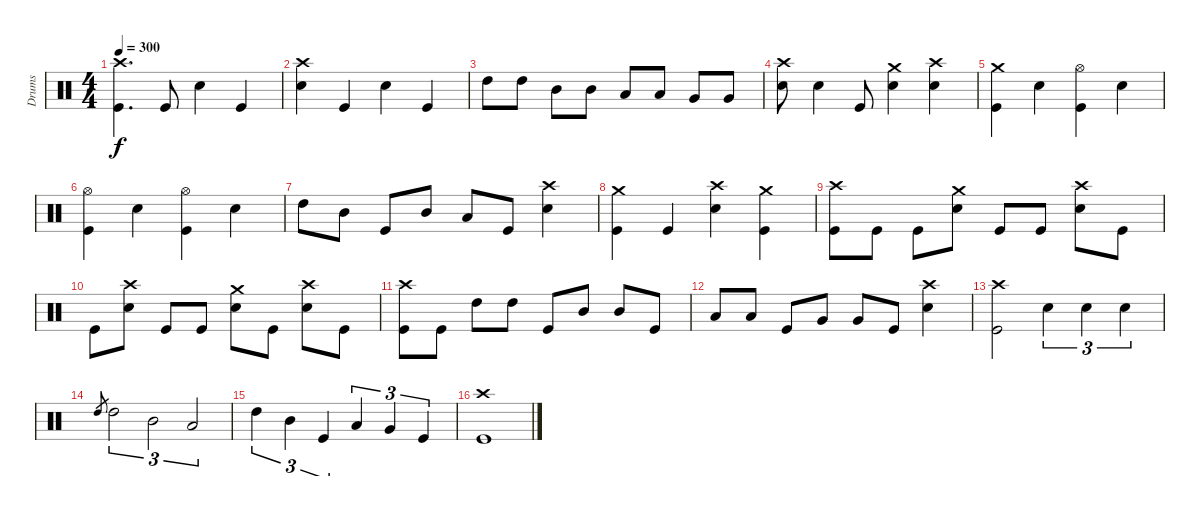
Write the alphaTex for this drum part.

\track ("Drums" "Drums") {instrument percussion}
\staff {score}
\articulation defaults
\ts (4 4)
\tempo 300
\clef neutral
\ks c
("Crash high (hit)" "Kick (hit)").4{d dy f} "Kick (hit)".8 "Electric Snare (hit)".4 "Kick (hit)".4 |
("Crash high (hit)" "Electric Snare (hit)").4 "Kick (hit)".4 "Electric Snare (hit)".4 "Kick (hit)".4 |
"High Tom (hit)".8 "High Tom (hit)".8 "Mid Tom (hit)".8 "Mid Tom (hit)".8 "Low Tom (hit)".8 "Low Tom (hit)".8 "Very Low Tom (hit)".8 "Very Low Tom (hit)".8 |
("Crash high (hit)" "Electric Snare (hit)").8 "Electric Snare (hit)".4 "Kick (hit)".8 ("Crash medium (hit)" "Electric Snare (hit)").4 ("Crash high (hit)" "Electric Snare (hit)").4 |
("Crash medium (hit)" "Kick (hit)").4 "Electric Snare (hit)".4 ("Hi-Hat (open)" "Kick (hit)").4 "Electric Snare (hit)".4 |
("Hi-Hat (open)" "Kick (hit)").4 "Electric Snare (hit)".4 ("Hi-Hat (open)" "Kick (hit)").4 "Electric Snare (hit)".4 |
"High Tom (hit)".8 "Mid Tom (hit)".8 "Kick (hit)".8 "Mid Tom (hit)".8 "Low Tom (hit)".8 "Kick (hit)".8 ("Crash high (hit)" "Electric Snare (hit)").4 |
("Crash medium (hit)" "Kick (hit)").4 "Kick (hit)".4 ("Crash high (hit)" "Electric Snare (hit)").4 ("Crash medium (hit)" "Kick (hit)").4 |
("Crash high (hit)" "Kick (hit)").8 "Kick (hit)".8 "Kick (hit)".8 ("Crash medium (hit)" "Electric Snare (hit)").8 "Kick (hit)".8 "Kick (hit)".8 ("Crash high (hit)" "Electric Snare (hit)").8 "Kick (hit)".8 |
"Kick (hit)".8 ("Crash high (hit)" "Electric Snare (hit)").8 "Kick (hit)".8 "Kick (hit)".8 ("Crash medium (hit)" "Electric Snare (hit)").8 "Kick (hit)".8 ("Crash high (hit)" "Electric Snare (hit)").8 "Kick (hit)".8 |
("Crash high (hit)" "Kick (hit)").8 "Kick (hit)".8 "High Tom (hit)".8 "High Tom (hit)".8 "Kick (hit)".8 "Mid Tom (hit)".8 "Mid Tom (hit)".8 "Kick (hit)".8 |
"Low Tom (hit)".8 "Low Tom (hit)".8 "Kick (hit)".8 "Very Low Tom (hit)".8 "Very Low Tom (hit)".8 "Kick (hit)".8 ("Crash high (hit)" "Electric Snare (hit)").4 |
("Crash high (hit)" "Kick (hit)").2 "Electric Snare (hit)".4{tu (3 2)} "Electric Snare (hit)".4{tu (3 2)} "Electric Snare (hit)".4{tu (3 2)} |
"High Tom (hit)".8{gr} "High Tom (hit)".2{tu (3 2)} "Mid Tom (hit)".2{tu (3 2)} "Low Tom (hit)".2{tu (3 2)} |
"High Tom (hit)".4{tu (3 2)} "Mid Tom (hit)".4{tu (3 2)} "Kick (hit)".4{tu (3 2)} "Low Tom (hit)".4{tu (3 2)} "Very Low Tom (hit)".4{tu (3 2)} "Kick (hit)".4{tu (3 2)} |
("Crash high (hit)" "Kick (hit)").1
